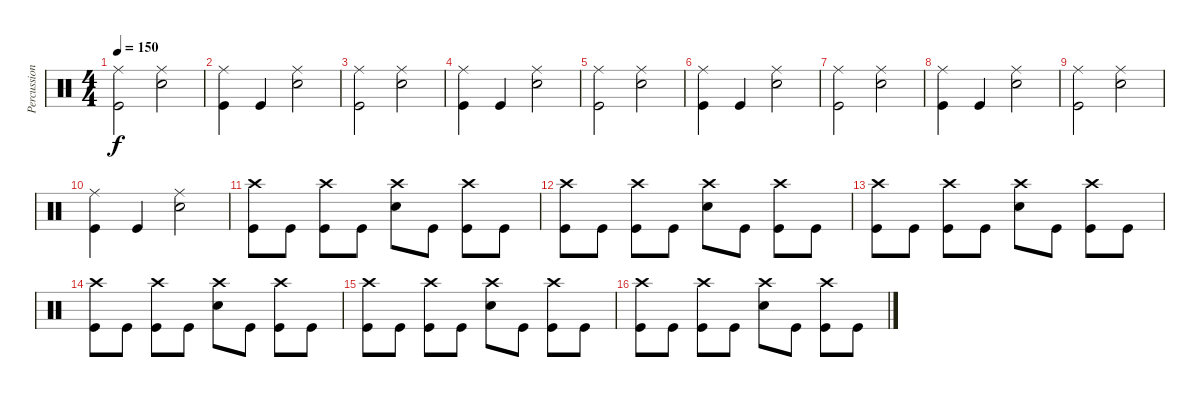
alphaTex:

\track ("Percussion" "Percussion") {instrument percussion}
\staff {score}
\articulation defaults
\ts (4 4)
\tempo 150
\clef neutral
\ks c
("Ride (middle)" "Kick (hit)").2{dy f} ("Ride (middle)" "Electric Snare (hit)").2 |
("Ride (middle)" "Kick (hit)").4 "Kick (hit)".4 ("Ride (middle)" "Electric Snare (hit)").2 |
("Ride (middle)" "Kick (hit)").2 ("Ride (middle)" "Electric Snare (hit)").2 |
("Ride (middle)" "Kick (hit)").4 "Kick (hit)".4 ("Ride (middle)" "Electric Snare (hit)").2 |
("Ride (middle)" "Kick (hit)").2 ("Ride (middle)" "Electric Snare (hit)").2 |
("Ride (middle)" "Kick (hit)").4 "Kick (hit)".4 ("Ride (middle)" "Electric Snare (hit)").2 |
("Ride (middle)" "Kick (hit)").2 ("Ride (middle)" "Electric Snare (hit)").2 |
("Ride (middle)" "Kick (hit)").4 "Kick (hit)".4 ("Ride (middle)" "Electric Snare (hit)").2 |
("Ride (middle)" "Kick (hit)").2 ("Ride (middle)" "Electric Snare (hit)").2 |
("Ride (middle)" "Kick (hit)").4 "Kick (hit)".4 ("Ride (middle)" "Electric Snare (hit)").2 |
("Crash high (hit)" "Kick (hit)").8 "Kick (hit)".8 ("Crash high (hit)" "Kick (hit)").8 "Kick (hit)".8 ("Crash high (hit)" "Electric Snare (hit)").8 "Kick (hit)".8 ("Crash high (hit)" "Kick (hit)").8 "Kick (hit)".8 |
("Crash high (hit)" "Kick (hit)").8 "Kick (hit)".8 ("Crash high (hit)" "Kick (hit)").8 "Kick (hit)".8 ("Crash high (hit)" "Electric Snare (hit)").8 "Kick (hit)".8 ("Crash high (hit)" "Kick (hit)").8 "Kick (hit)".8 |
("Crash high (hit)" "Kick (hit)").8 "Kick (hit)".8 ("Crash high (hit)" "Kick (hit)").8 "Kick (hit)".8 ("Crash high (hit)" "Electric Snare (hit)").8 "Kick (hit)".8 ("Crash high (hit)" "Kick (hit)").8 "Kick (hit)".8 |
("Crash high (hit)" "Kick (hit)").8 "Kick (hit)".8 ("Crash high (hit)" "Kick (hit)").8 "Kick (hit)".8 ("Crash high (hit)" "Electric Snare (hit)").8 "Kick (hit)".8 ("Crash high (hit)" "Kick (hit)").8 "Kick (hit)".8 |
("Crash high (hit)" "Kick (hit)").8 "Kick (hit)".8 ("Crash high (hit)" "Kick (hit)").8 "Kick (hit)".8 ("Crash high (hit)" "Electric Snare (hit)").8 "Kick (hit)".8 ("Crash high (hit)" "Kick (hit)").8 "Kick (hit)".8 |
("Crash high (hit)" "Kick (hit)").8 "Kick (hit)".8 ("Crash high (hit)" "Kick (hit)").8 "Kick (hit)".8 ("Crash high (hit)" "Electric Snare (hit)").8 "Kick (hit)".8 ("Crash high (hit)" "Kick (hit)").8 "Kick (hit)".8
